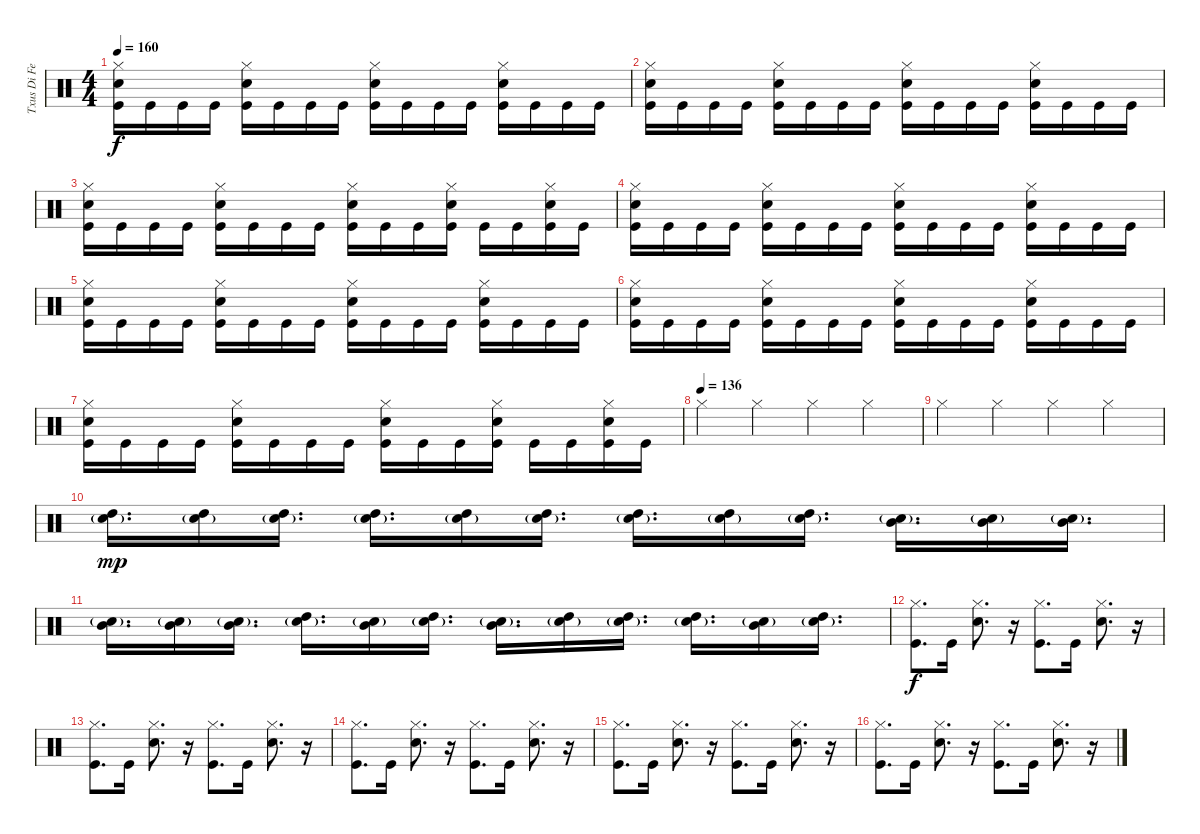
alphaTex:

\track ("Txus Di Fellatio" "Txus Di Fe") {instrument percussion}
\staff {score}
\articulation defaults
\ts (4 4)
\tempo 160
\clef neutral
\ks c
("Hi-Hat (closed)" "Snare (hit) 2" "Kick (hit)").16{dy f} "Kick (hit)".16 "Kick (hit)".16 "Kick (hit)".16 ("Hi-Hat (closed)" "Snare (hit) 2" "Kick (hit)").16 "Kick (hit)".16 "Kick (hit)".16 "Kick (hit)".16 ("Hi-Hat (closed)" "Snare (hit) 2" "Kick (hit)").16 "Kick (hit)".16 "Kick (hit)".16 "Kick (hit)".16 ("Hi-Hat (closed)" "Snare (hit) 2" "Kick (hit)").16 "Kick (hit)".16 "Kick (hit)".16 "Kick (hit)".16 |
("Hi-Hat (closed)" "Snare (hit) 2" "Kick (hit)").16 "Kick (hit)".16 "Kick (hit)".16 "Kick (hit)".16 ("Hi-Hat (closed)" "Snare (hit) 2" "Kick (hit)").16 "Kick (hit)".16 "Kick (hit)".16 "Kick (hit)".16 ("Hi-Hat (closed)" "Snare (hit) 2" "Kick (hit)").16 "Kick (hit)".16 "Kick (hit)".16 "Kick (hit)".16 ("Hi-Hat (closed)" "Snare (hit) 2" "Kick (hit)").16 "Kick (hit)".16 "Kick (hit)".16 "Kick (hit)".16 |
("Hi-Hat (closed)" "Snare (hit) 2" "Kick (hit)").16 "Kick (hit)".16 "Kick (hit)".16 "Kick (hit)".16 ("Hi-Hat (closed)" "Snare (hit) 2" "Kick (hit)").16 "Kick (hit)".16 "Kick (hit)".16 "Kick (hit)".16 ("Hi-Hat (closed)" "Snare (hit) 2" "Kick (hit)").16 "Kick (hit)".16 "Kick (hit)".16 ("Hi-Hat (closed)" "Snare (hit) 2" "Kick (hit)").16 "Kick (hit)".16 "Kick (hit)".16 ("Hi-Hat (closed)" "Snare (hit) 2" "Kick (hit)").16 "Kick (hit)".16 |
("Hi-Hat (closed)" "Snare (hit) 2" "Kick (hit)").16 "Kick (hit)".16 "Kick (hit)".16 "Kick (hit)".16 ("Hi-Hat (closed)" "Snare (hit) 2" "Kick (hit)").16 "Kick (hit)".16 "Kick (hit)".16 "Kick (hit)".16 ("Hi-Hat (closed)" "Snare (hit) 2" "Kick (hit)").16 "Kick (hit)".16 "Kick (hit)".16 "Kick (hit)".16 ("Hi-Hat (closed)" "Snare (hit) 2" "Kick (hit)").16 "Kick (hit)".16 "Kick (hit)".16 "Kick (hit)".16 |
("Hi-Hat (closed)" "Snare (hit) 2" "Kick (hit)").16 "Kick (hit)".16 "Kick (hit)".16 "Kick (hit)".16 ("Hi-Hat (closed)" "Snare (hit) 2" "Kick (hit)").16 "Kick (hit)".16 "Kick (hit)".16 "Kick (hit)".16 ("Hi-Hat (closed)" "Snare (hit) 2" "Kick (hit)").16 "Kick (hit)".16 "Kick (hit)".16 "Kick (hit)".16 ("Hi-Hat (closed)" "Snare (hit) 2" "Kick (hit)").16 "Kick (hit)".16 "Kick (hit)".16 "Kick (hit)".16 |
("Hi-Hat (closed)" "Snare (hit) 2" "Kick (hit)").16 "Kick (hit)".16 "Kick (hit)".16 "Kick (hit)".16 ("Hi-Hat (closed)" "Snare (hit) 2" "Kick (hit)").16 "Kick (hit)".16 "Kick (hit)".16 "Kick (hit)".16 ("Hi-Hat (closed)" "Snare (hit) 2" "Kick (hit)").16 "Kick (hit)".16 "Kick (hit)".16 "Kick (hit)".16 ("Hi-Hat (closed)" "Snare (hit) 2" "Kick (hit)").16 "Kick (hit)".16 "Kick (hit)".16 "Kick (hit)".16 |
("Hi-Hat (closed)" "Snare (hit) 2" "Kick (hit)").16 "Kick (hit)".16 "Kick (hit)".16 "Kick (hit)".16 ("Hi-Hat (closed)" "Snare (hit) 2" "Kick (hit)").16 "Kick (hit)".16 "Kick (hit)".16 "Kick (hit)".16 ("Hi-Hat (closed)" "Snare (hit) 2" "Kick (hit)").16 "Kick (hit)".16 "Kick (hit)".16 ("Hi-Hat (closed)" "Snare (hit) 2" "Kick (hit)").16 "Kick (hit)".16 "Kick (hit)".16 ("Hi-Hat (closed)" "Snare (hit) 2" "Kick (hit)").16 "Kick (hit)".16 |
\tempo (136)
"Hi-Hat (closed)".4 "Hi-Hat (closed)".4 "Hi-Hat (closed)".4 "Hi-Hat (closed)".4 |
"Hi-Hat (closed)".4 "Hi-Hat (closed)".4 "Hi-Hat (closed)".4 "Hi-Hat (closed)".4 |
("High Tom (hit)" "Snare (hit) 2"{g}).16{d dy mp} ("High Tom (hit)" "Snare (hit) 2"{g}).16 ("High Tom (hit)" "Snare (hit) 2"{g}).16{d} ("High Tom (hit)" "Snare (hit) 2"{g}).16{d} ("High Tom (hit)" "Snare (hit) 2"{g}).16 ("High Tom (hit)" "Snare (hit) 2"{g}).16{d} ("High Tom (hit)" "Snare (hit) 2"{g}).16{d} ("High Tom (hit)" "Snare (hit) 2"{g}).16 ("High Tom (hit)" "Snare (hit) 2"{g}).16{d} ("Mid Tom (hit)" "Snare (hit) 2"{g}).16{d} ("Mid Tom (hit)" "Snare (hit) 2"{g}).16 ("Mid Tom (hit)" "Snare (hit) 2"{g}).16{d} |
("Mid Tom (hit)" "Snare (hit) 2"{g}).16{d} ("Mid Tom (hit)" "Snare (hit) 2"{g}).16 ("Mid Tom (hit)" "Snare (hit) 2"{g}).16{d} ("High Tom (hit)" "Snare (hit) 2"{g}).16{d} ("Mid Tom (hit)" "Snare (hit) 2"{g}).16 ("High Tom (hit)" "Snare (hit) 2"{g}).16{d} ("Mid Tom (hit)" "Snare (hit) 2"{g}).16{d} ("High Tom (hit)" "Snare (hit) 2"{g}).16 ("High Tom (hit)" "Snare (hit) 2"{g}).16{d} ("High Tom (hit)" "Snare (hit) 2"{g}).16{d} ("Mid Tom (hit)" "Snare (hit) 2"{g}).16 ("High Tom (hit)" "Snare (hit) 2"{g}).16{d} |
("Kick (hit)" "Hi-Hat (closed)").8{d dy f} "Kick (hit)".16 ("Snare (hit) 2" "Hi-Hat (closed)").8{d} r.16 ("Kick (hit)" "Hi-Hat (closed)").8{d} "Kick (hit)".16 ("Snare (hit) 2" "Hi-Hat (closed)").8{d} r.16 |
("Kick (hit)" "Hi-Hat (closed)").8{d} "Kick (hit)".16 ("Snare (hit) 2" "Hi-Hat (closed)").8{d} r.16 ("Kick (hit)" "Hi-Hat (closed)").8{d} "Kick (hit)".16 ("Snare (hit) 2" "Hi-Hat (closed)").8{d} r.16 |
("Kick (hit)" "Hi-Hat (closed)").8{d} "Kick (hit)".16 ("Snare (hit) 2" "Hi-Hat (closed)").8{d} r.16 ("Kick (hit)" "Hi-Hat (closed)").8{d} "Kick (hit)".16 ("Snare (hit) 2" "Hi-Hat (closed)").8{d} r.16 |
("Kick (hit)" "Hi-Hat (closed)").8{d} "Kick (hit)".16 ("Snare (hit) 2" "Hi-Hat (closed)").8{d} r.16 ("Kick (hit)" "Hi-Hat (closed)").8{d} "Kick (hit)".16 ("Snare (hit) 2" "Hi-Hat (closed)").8{d} r.16 |
("Kick (hit)" "Hi-Hat (closed)").8{d} "Kick (hit)".16 ("Snare (hit) 2" "Hi-Hat (closed)").8{d} r.16 ("Kick (hit)" "Hi-Hat (closed)").8{d} "Kick (hit)".16 ("Snare (hit) 2" "Hi-Hat (closed)").8{d} r.16
